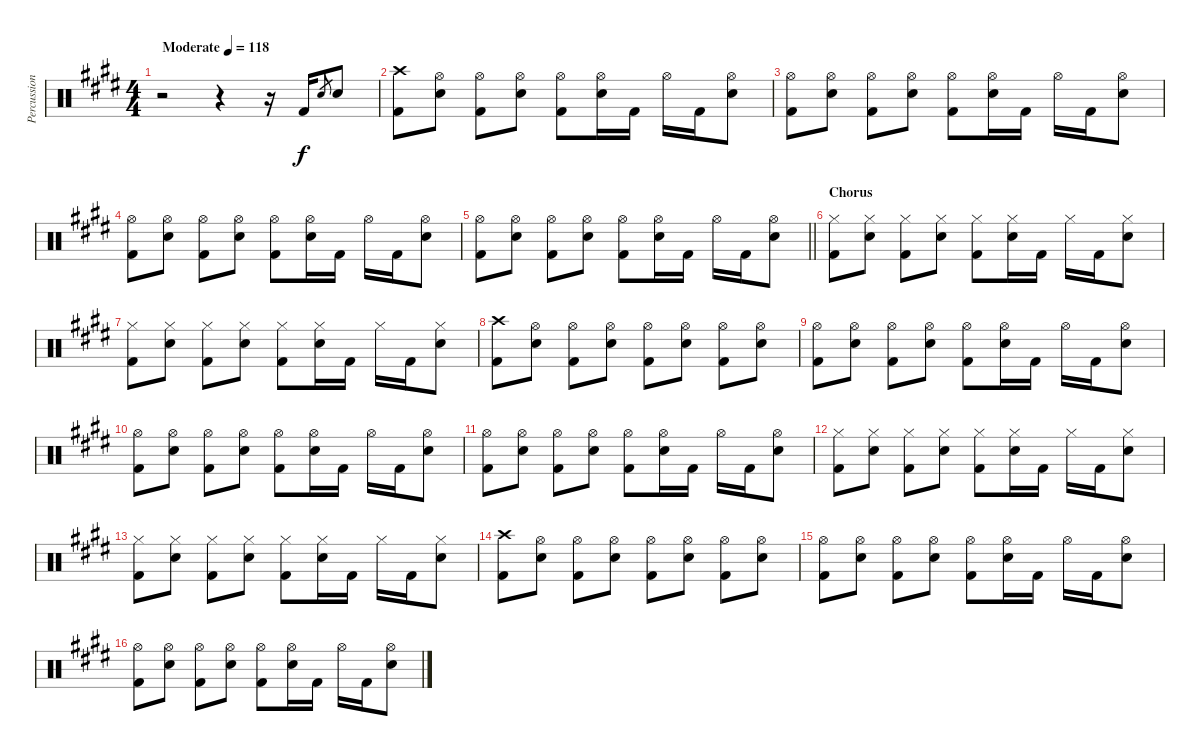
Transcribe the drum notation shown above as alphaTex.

\track ("Percussion" "Percussion") {instrument percussion}
\staff {score}
\articulation defaults
\ts (4 4)
\tempo (118 "Moderate")
\clef neutral
\ks e
r.2{dy f} r.4 r.16 "Kick (hit) 2".16 "Electric Snare (hit)".8{gr} "Electric Snare (hit)".8 |
("Crash high (hit)" "Kick (hit) 2").8 ("Hi-Hat (open)" "Electric Snare (hit)").8 ("Hi-Hat (open)" "Kick (hit) 2").8 ("Hi-Hat (open)" "Electric Snare (hit)").8 ("Hi-Hat (open)" "Kick (hit) 2").8 ("Hi-Hat (open)" "Electric Snare (hit)").16 "Kick (hit) 2".16 "Hi-Hat (open)".16 "Kick (hit) 2".16 ("Hi-Hat (open)" "Electric Snare (hit)").8 |
("Hi-Hat (open)" "Kick (hit) 2").8 ("Hi-Hat (open)" "Electric Snare (hit)").8 ("Hi-Hat (open)" "Kick (hit) 2").8 ("Hi-Hat (open)" "Electric Snare (hit)").8 ("Hi-Hat (open)" "Kick (hit) 2").8 ("Hi-Hat (open)" "Electric Snare (hit)").16 "Kick (hit) 2".16 "Hi-Hat (open)".16 "Kick (hit) 2".16 ("Hi-Hat (open)" "Electric Snare (hit)").8 |
("Hi-Hat (open)" "Kick (hit) 2").8 ("Hi-Hat (open)" "Electric Snare (hit)").8 ("Hi-Hat (open)" "Kick (hit) 2").8 ("Hi-Hat (open)" "Electric Snare (hit)").8 ("Hi-Hat (open)" "Kick (hit) 2").8 ("Hi-Hat (open)" "Electric Snare (hit)").16 "Kick (hit) 2".16 "Hi-Hat (open)".16 "Kick (hit) 2".16 ("Hi-Hat (open)" "Electric Snare (hit)").8 |
\barLineRight lightlight
("Hi-Hat (open)" "Kick (hit) 2").8 ("Hi-Hat (open)" "Electric Snare (hit)").8 ("Hi-Hat (open)" "Kick (hit) 2").8 ("Hi-Hat (open)" "Electric Snare (hit)").8 ("Hi-Hat (open)" "Kick (hit) 2").8 ("Hi-Hat (open)" "Electric Snare (hit)").16 "Kick (hit) 2".16 "Hi-Hat (open)".16 "Kick (hit) 2".16 ("Hi-Hat (open)" "Electric Snare (hit)").8 |
\section ("" "Chorus")
("Hi-Hat (closed)" "Kick (hit) 2").8 ("Hi-Hat (closed)" "Electric Snare (hit)").8 ("Hi-Hat (closed)" "Kick (hit) 2").8 ("Hi-Hat (closed)" "Electric Snare (hit)").8 ("Hi-Hat (closed)" "Kick (hit) 2").8 ("Hi-Hat (closed)" "Electric Snare (hit)").16 "Kick (hit) 2".16 "Hi-Hat (closed)".16 "Kick (hit) 2".16 ("Hi-Hat (closed)" "Electric Snare (hit)").8 |
("Hi-Hat (closed)" "Kick (hit) 2").8 ("Hi-Hat (closed)" "Electric Snare (hit)").8 ("Hi-Hat (closed)" "Kick (hit) 2").8 ("Hi-Hat (closed)" "Electric Snare (hit)").8 ("Hi-Hat (closed)" "Kick (hit) 2").8 ("Hi-Hat (closed)" "Electric Snare (hit)").16 "Kick (hit) 2".16 "Hi-Hat (closed)".16 "Kick (hit) 2".16 ("Hi-Hat (closed)" "Electric Snare (hit)").8 |
("Crash high (hit)" "Kick (hit) 2").8 ("Hi-Hat (open)" "Electric Snare (hit)").8 ("Hi-Hat (open)" "Kick (hit) 2").8 ("Hi-Hat (open)" "Electric Snare (hit)").8 ("Hi-Hat (open)" "Kick (hit) 2").8 ("Hi-Hat (open)" "Electric Snare (hit)").8 ("Hi-Hat (open)" "Kick (hit) 2").8 ("Hi-Hat (open)" "Electric Snare (hit)").8 |
("Hi-Hat (open)" "Kick (hit) 2").8 ("Hi-Hat (open)" "Electric Snare (hit)").8 ("Hi-Hat (open)" "Kick (hit) 2").8 ("Hi-Hat (open)" "Electric Snare (hit)").8 ("Hi-Hat (open)" "Kick (hit) 2").8 ("Hi-Hat (open)" "Electric Snare (hit)").16 "Kick (hit) 2".16 "Hi-Hat (open)".16 "Kick (hit) 2".16 ("Hi-Hat (open)" "Electric Snare (hit)").8 |
("Hi-Hat (open)" "Kick (hit) 2").8 ("Hi-Hat (open)" "Electric Snare (hit)").8 ("Hi-Hat (open)" "Kick (hit) 2").8 ("Hi-Hat (open)" "Electric Snare (hit)").8 ("Hi-Hat (open)" "Kick (hit) 2").8 ("Hi-Hat (open)" "Electric Snare (hit)").16 "Kick (hit) 2".16 "Hi-Hat (open)".16 "Kick (hit) 2".16 ("Hi-Hat (open)" "Electric Snare (hit)").8 |
("Hi-Hat (open)" "Kick (hit) 2").8 ("Hi-Hat (open)" "Electric Snare (hit)").8 ("Hi-Hat (open)" "Kick (hit) 2").8 ("Hi-Hat (open)" "Electric Snare (hit)").8 ("Hi-Hat (open)" "Kick (hit) 2").8 ("Hi-Hat (open)" "Electric Snare (hit)").16 "Kick (hit) 2".16 "Hi-Hat (open)".16 "Kick (hit) 2".16 ("Hi-Hat (open)" "Electric Snare (hit)").8 |
("Hi-Hat (closed)" "Kick (hit) 2").8 ("Hi-Hat (closed)" "Electric Snare (hit)").8 ("Hi-Hat (closed)" "Kick (hit) 2").8 ("Hi-Hat (closed)" "Electric Snare (hit)").8 ("Hi-Hat (closed)" "Kick (hit) 2").8 ("Hi-Hat (closed)" "Electric Snare (hit)").16 "Kick (hit) 2".16 "Hi-Hat (closed)".16 "Kick (hit) 2".16 ("Hi-Hat (closed)" "Electric Snare (hit)").8 |
("Hi-Hat (closed)" "Kick (hit) 2").8 ("Hi-Hat (closed)" "Electric Snare (hit)").8 ("Hi-Hat (closed)" "Kick (hit) 2").8 ("Hi-Hat (closed)" "Electric Snare (hit)").8 ("Hi-Hat (closed)" "Kick (hit) 2").8 ("Hi-Hat (closed)" "Electric Snare (hit)").16 "Kick (hit) 2".16 "Hi-Hat (closed)".16 "Kick (hit) 2".16 ("Hi-Hat (closed)" "Electric Snare (hit)").8 |
("Crash high (hit)" "Kick (hit) 2").8 ("Hi-Hat (open)" "Electric Snare (hit)").8 ("Hi-Hat (open)" "Kick (hit) 2").8 ("Hi-Hat (open)" "Electric Snare (hit)").8 ("Hi-Hat (open)" "Kick (hit) 2").8 ("Hi-Hat (open)" "Electric Snare (hit)").8 ("Hi-Hat (open)" "Kick (hit) 2").8 ("Hi-Hat (open)" "Electric Snare (hit)").8 |
("Hi-Hat (open)" "Kick (hit) 2").8 ("Hi-Hat (open)" "Electric Snare (hit)").8 ("Hi-Hat (open)" "Kick (hit) 2").8 ("Hi-Hat (open)" "Electric Snare (hit)").8 ("Hi-Hat (open)" "Kick (hit) 2").8 ("Hi-Hat (open)" "Electric Snare (hit)").16 "Kick (hit) 2".16 "Hi-Hat (open)".16 "Kick (hit) 2".16 ("Hi-Hat (open)" "Electric Snare (hit)").8 |
("Hi-Hat (open)" "Kick (hit) 2").8 ("Hi-Hat (open)" "Electric Snare (hit)").8 ("Hi-Hat (open)" "Kick (hit) 2").8 ("Hi-Hat (open)" "Electric Snare (hit)").8 ("Hi-Hat (open)" "Kick (hit) 2").8 ("Hi-Hat (open)" "Electric Snare (hit)").16 "Kick (hit) 2".16 "Hi-Hat (open)".16 "Kick (hit) 2".16 ("Hi-Hat (open)" "Electric Snare (hit)").8
